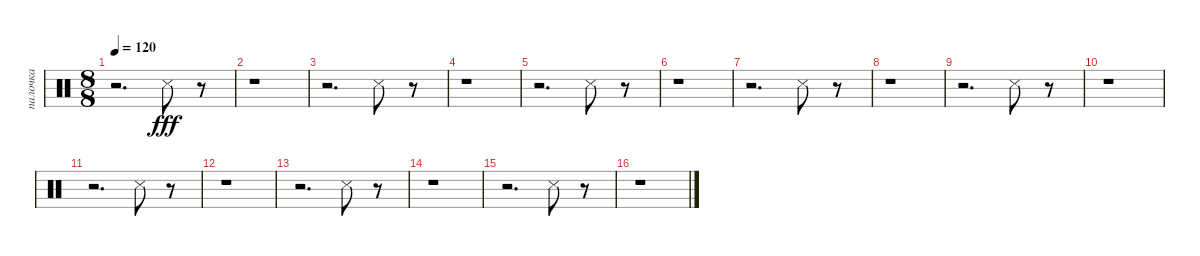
\track ("палочка" "палочка") {instrument percussion}
\staff {score}
\articulation defaults
\ts (8 8)
\tempo 120
\clef neutral
\ks c
r.2{d dy fff} "Snare (side stick) 3".8 r.8 |
r.1 |
r.2{d} "Snare (side stick) 3".8 r.8 |
r.1 |
r.2{d} "Snare (side stick) 3".8 r.8 |
r.1 |
r.2{d} "Snare (side stick) 3".8 r.8 |
r.1 |
r.2{d} "Snare (side stick) 3".8 r.8 |
r.1 |
r.2{d} "Snare (side stick) 3".8{volume 14} r.8 |
r.1 |
r.2{d} "Snare (side stick) 3".8{volume 13} r.8 |
r.1 |
r.2{d} "Snare (side stick) 3".8{volume 12} r.8 |
r.1
